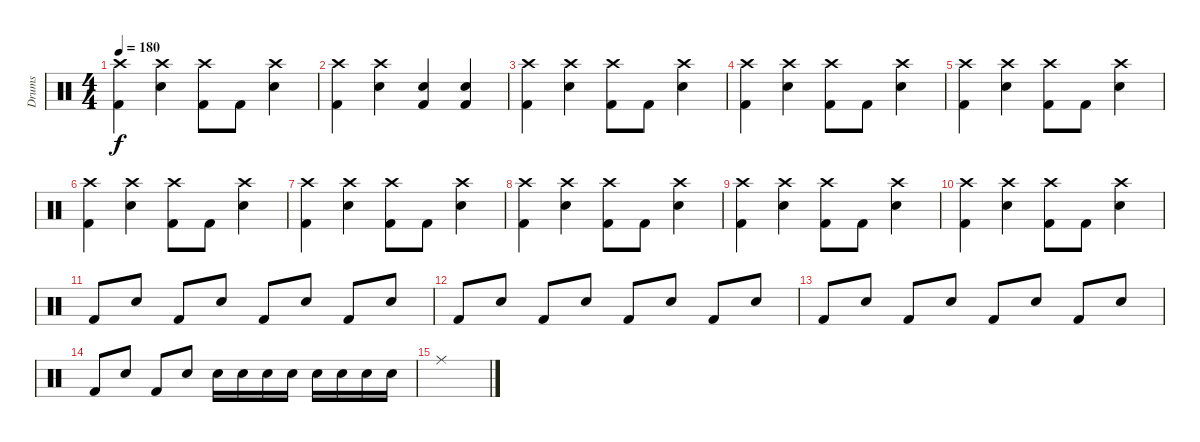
\track ("Drums" "Drums") {instrument percussion}
\staff {score}
\articulation defaults
\ts (4 4)
\tempo 180
\clef neutral
\ks c
("Kick (hit) 2" "Crash high (hit)").4{dy f} ("Snare (hit) 2" "Crash high (hit)").4 ("Kick (hit) 2" "Crash high (hit)").8 "Kick (hit) 2".8 ("Snare (hit) 2" "Crash high (hit)").4 |
("Kick (hit) 2" "Crash high (hit)").4 ("Snare (hit) 2" "Crash high (hit)").4 ("Kick (hit) 2" "Snare (hit) 2").4 ("Snare (hit) 2" "Kick (hit) 2").4 |
("Kick (hit) 2" "Crash high (hit)").4 ("Snare (hit) 2" "Crash high (hit)").4 ("Kick (hit) 2" "Crash high (hit)").8 "Kick (hit) 2".8 ("Snare (hit) 2" "Crash high (hit)").4 |
("Kick (hit) 2" "Crash high (hit)").4 ("Snare (hit) 2" "Crash high (hit)").4 ("Kick (hit) 2" "Crash high (hit)").8 "Kick (hit) 2".8 ("Snare (hit) 2" "Crash high (hit)").4 |
("Kick (hit) 2" "Crash high (hit)").4 ("Snare (hit) 2" "Crash high (hit)").4 ("Kick (hit) 2" "Crash high (hit)").8 "Kick (hit) 2".8 ("Snare (hit) 2" "Crash high (hit)").4 |
("Kick (hit) 2" "Crash high (hit)").4 ("Snare (hit) 2" "Crash high (hit)").4 ("Kick (hit) 2" "Crash high (hit)").8 "Kick (hit) 2".8 ("Snare (hit) 2" "Crash high (hit)").4 |
("Kick (hit) 2" "Crash high (hit)").4 ("Snare (hit) 2" "Crash high (hit)").4 ("Kick (hit) 2" "Crash high (hit)").8 "Kick (hit) 2".8 ("Snare (hit) 2" "Crash high (hit)").4 |
("Kick (hit) 2" "Crash high (hit)").4 ("Snare (hit) 2" "Crash high (hit)").4 ("Kick (hit) 2" "Crash high (hit)").8 "Kick (hit) 2".8 ("Snare (hit) 2" "Crash high (hit)").4 |
("Kick (hit) 2" "Crash high (hit)").4 ("Snare (hit) 2" "Crash high (hit)").4 ("Kick (hit) 2" "Crash high (hit)").8 "Kick (hit) 2".8 ("Snare (hit) 2" "Crash high (hit)").4 |
("Kick (hit) 2" "Crash high (hit)").4 ("Snare (hit) 2" "Crash high (hit)").4 ("Kick (hit) 2" "Crash high (hit)").8 "Kick (hit) 2".8 ("Snare (hit) 2" "Crash high (hit)").4 |
"Kick (hit) 2".8 "Snare (hit) 2".8 "Kick (hit) 2".8 "Snare (hit) 2".8 "Kick (hit) 2".8 "Snare (hit) 2".8 "Kick (hit) 2".8 "Snare (hit) 2".8 |
"Kick (hit) 2".8 "Snare (hit) 2".8 "Kick (hit) 2".8 "Snare (hit) 2".8 "Kick (hit) 2".8 "Snare (hit) 2".8 "Kick (hit) 2".8 "Snare (hit) 2".8 |
"Kick (hit) 2".8 "Snare (hit) 2".8 "Kick (hit) 2".8 "Snare (hit) 2".8 "Kick (hit) 2".8 "Snare (hit) 2".8 "Kick (hit) 2".8 "Snare (hit) 2".8 |
"Kick (hit) 2".8 "Snare (hit) 2".8 "Kick (hit) 2".8 "Snare (hit) 2".8 "Snare (hit) 2".16 "Snare (hit) 2".16 "Snare (hit) 2".16 "Snare (hit) 2".16 "Snare (hit) 2".16 "Snare (hit) 2".16 "Snare (hit) 2".16 "Snare (hit) 2".16 |
"Ride (middle)".1
